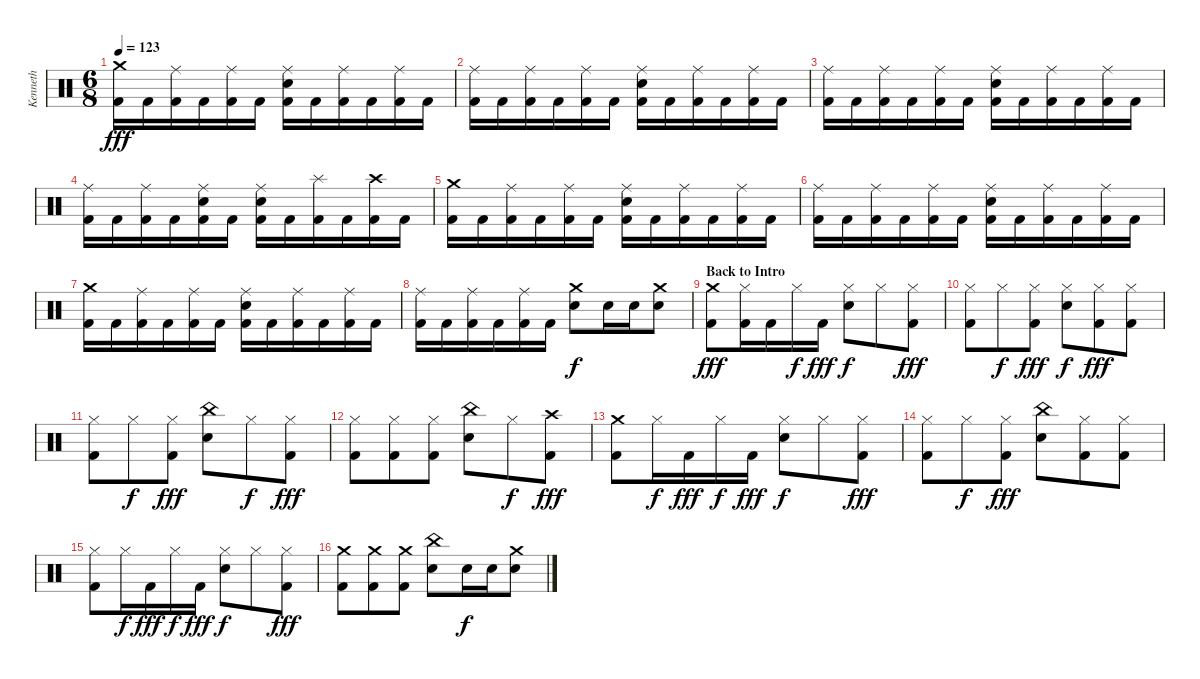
\track ("Kenneth" "Kenneth") {instrument percussion}
\staff {score}
\articulation defaults
\ts (6 8)
\tempo 123
\clef neutral
\ks c
("Crash medium (hit)" "Kick (hit) 2").16{dy fff} "Kick (hit) 2".16 ("Ride (middle)" "Kick (hit) 2").16 "Kick (hit) 2".16 ("Ride (middle)" "Kick (hit) 2").16 "Kick (hit) 2".16 ("Ride (middle)" "Snare (hit) 2" "Kick (hit) 2").16 "Kick (hit) 2".16 ("Ride (middle)" "Kick (hit) 2").16 "Kick (hit) 2".16 ("Ride (middle)" "Kick (hit) 2").16 "Kick (hit) 2".16 |
("Ride (middle)" "Kick (hit) 2").16 "Kick (hit) 2".16 ("Ride (middle)" "Kick (hit) 2").16 "Kick (hit) 2".16 ("Ride (middle)" "Kick (hit) 2").16 "Kick (hit) 2".16 ("Ride (middle)" "Snare (hit) 2" "Kick (hit) 2").16 "Kick (hit) 2".16 ("Ride (middle)" "Kick (hit) 2").16 "Kick (hit) 2".16 ("Ride (middle)" "Kick (hit) 2").16 "Kick (hit) 2".16 |
("Ride (middle)" "Kick (hit) 2").16 "Kick (hit) 2".16 ("Ride (middle)" "Kick (hit) 2").16 "Kick (hit) 2".16 ("Ride (middle)" "Kick (hit) 2").16 "Kick (hit) 2".16 ("Ride (middle)" "Snare (hit) 2" "Kick (hit) 2").16 "Kick (hit) 2".16 ("Ride (middle)" "Kick (hit) 2").16 "Kick (hit) 2".16 ("Ride (middle)" "Kick (hit) 2").16 "Kick (hit) 2".16 |
("Ride (middle)" "Kick (hit) 2").16 "Kick (hit) 2".16 ("Ride (middle)" "Kick (hit) 2").16 "Kick (hit) 2".16 ("Ride (middle)" "Snare (hit) 2" "Kick (hit) 2").16 "Kick (hit) 2".16 ("Ride (middle)" "Snare (hit) 2" "Kick (hit) 2").16 "Kick (hit) 2".16 ("Splash (hit)" "Kick (hit) 2").16 "Kick (hit) 2".16 ("Crash high (hit)" "Kick (hit) 2").16 "Kick (hit) 2".16 |
("Crash medium (hit)" "Kick (hit) 2").16 "Kick (hit) 2".16 ("Ride (middle)" "Kick (hit) 2").16 "Kick (hit) 2".16 ("Ride (middle)" "Kick (hit) 2").16 "Kick (hit) 2".16 ("Ride (middle)" "Snare (hit) 2" "Kick (hit) 2").16 "Kick (hit) 2".16 ("Ride (middle)" "Kick (hit) 2").16 "Kick (hit) 2".16 ("Ride (middle)" "Kick (hit) 2").16 "Kick (hit) 2".16 |
("Ride (middle)" "Kick (hit) 2").16 "Kick (hit) 2".16 ("Ride (middle)" "Kick (hit) 2").16 "Kick (hit) 2".16 ("Ride (middle)" "Kick (hit) 2").16 "Kick (hit) 2".16 ("Ride (middle)" "Snare (hit) 2" "Kick (hit) 2").16 "Kick (hit) 2".16 ("Ride (middle)" "Kick (hit) 2").16 "Kick (hit) 2".16 ("Ride (middle)" "Kick (hit) 2").16 "Kick (hit) 2".16 |
("Crash medium (hit)" "Kick (hit) 2").16 "Kick (hit) 2".16 ("Ride (middle)" "Kick (hit) 2").16 "Kick (hit) 2".16 ("Ride (middle)" "Kick (hit) 2").16 "Kick (hit) 2".16 ("Ride (middle)" "Snare (hit) 2" "Kick (hit) 2").16 "Kick (hit) 2".16 ("Ride (middle)" "Kick (hit) 2").16 "Kick (hit) 2".16 ("Ride (middle)" "Kick (hit) 2").16 "Kick (hit) 2".16 |
("Ride (middle)" "Kick (hit) 2").16 "Kick (hit) 2".16 ("Ride (middle)" "Kick (hit) 2").16 "Kick (hit) 2".16 ("Ride (middle)" "Kick (hit) 2").16 "Kick (hit) 2".16 ("Crash medium (hit)" "Snare (hit) 2").8{dy f} "Snare (hit) 2".16 "Snare (hit) 2".16 ("Crash medium (hit)" "Snare (hit) 2").8 |
\section ("" "Back to Intro")
("Crash medium (hit)" "Kick (hit) 2").8{dy fff} ("Hi-Hat (closed)" "Kick (hit) 2").16 "Kick (hit) 2".16 "Hi-Hat (closed)".16{dy f} "Kick (hit) 2".16{dy fff} ("Hi-Hat (closed)" "Snare (hit) 2").8{dy f} "Hi-Hat (closed)".8 ("Hi-Hat (closed)" "Kick (hit) 2").8{dy fff} |
("Hi-Hat (closed)" "Kick (hit) 2").8 "Hi-Hat (closed)".8{dy f} ("Hi-Hat (closed)" "Kick (hit) 2").8{dy fff} ("Hi-Hat (closed)" "Snare (hit) 2").8{dy f} ("Hi-Hat (closed)" "Kick (hit) 2").8{dy fff} ("Hi-Hat (closed)" "Kick (hit) 2").8 |
("Hi-Hat (closed)" "Kick (hit) 2").8 "Hi-Hat (closed)".8{dy f} ("Hi-Hat (closed)" "Kick (hit) 2").8{dy fff} ("China (hit)" "Snare (hit) 2").8 "Hi-Hat (closed)".8{dy f} ("Hi-Hat (closed)" "Kick (hit) 2").8{dy fff} |
("Hi-Hat (closed)" "Kick (hit) 2").8 ("Hi-Hat (closed)" "Kick (hit) 2").8 ("Hi-Hat (closed)" "Kick (hit) 2").8 ("China (hit)" "Snare (hit) 2").8 "Hi-Hat (closed)".8{dy f} ("Crash high (hit)" "Kick (hit) 2").8{dy fff} |
("Crash medium (hit)" "Kick (hit) 2").8 "Hi-Hat (closed)".16{dy f} "Kick (hit) 2".16{dy fff} "Hi-Hat (closed)".16{dy f} "Kick (hit) 2".16{dy fff} ("Hi-Hat (closed)" "Snare (hit) 2").8{dy f} "Hi-Hat (closed)".8 ("Hi-Hat (closed)" "Kick (hit) 2").8{dy fff} |
("Hi-Hat (closed)" "Kick (hit) 2").8 "Hi-Hat (closed)".8{dy f} ("Hi-Hat (closed)" "Kick (hit) 2").8{dy fff} ("China (hit)" "Snare (hit) 2").8 ("Hi-Hat (closed)" "Kick (hit) 2").8 ("Hi-Hat (closed)" "Kick (hit) 2").8 |
("Hi-Hat (closed)" "Kick (hit) 2").8 "Hi-Hat (closed)".16{dy f} "Kick (hit) 2".16{dy fff} "Hi-Hat (closed)".16{dy f} "Kick (hit) 2".16{dy fff} ("Hi-Hat (closed)" "Snare (hit) 2").8{dy f} "Hi-Hat (closed)".8 ("Hi-Hat (closed)" "Kick (hit) 2").8{dy fff} |
("Crash medium (hit)" "Kick (hit) 2").8 ("Crash medium (hit)" "Kick (hit) 2").8 ("Crash medium (hit)" "Kick (hit) 2").8 ("China (hit)" "Snare (hit) 2").8 "Snare (hit) 2".16{dy f} "Snare (hit) 2".16 ("Crash medium (hit)" "Snare (hit) 2").8
